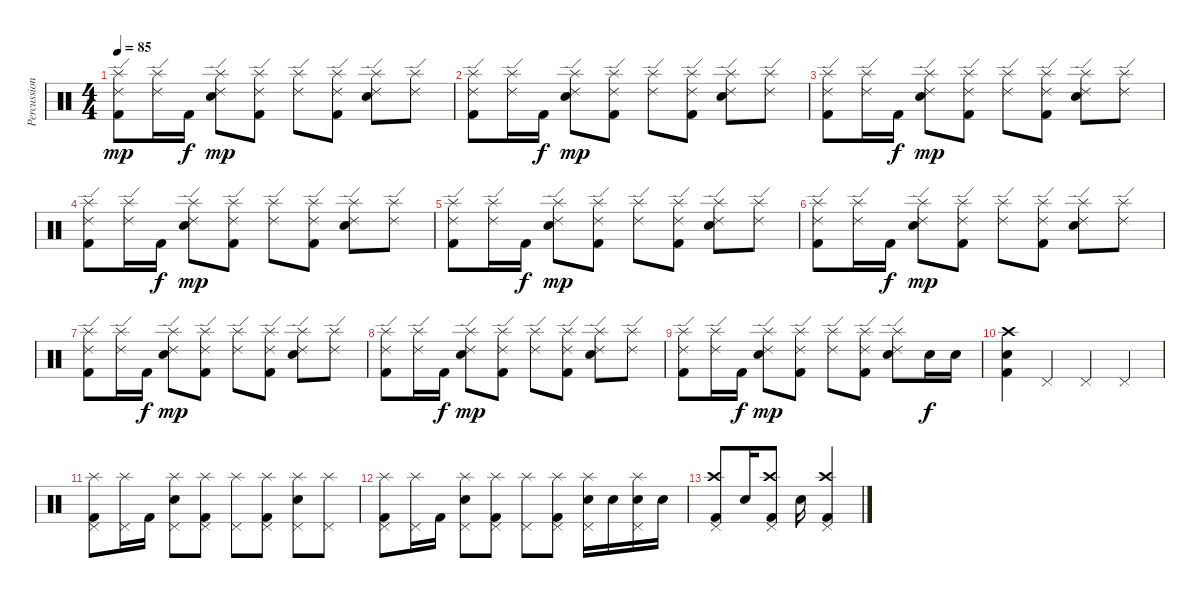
\track ("Percussion" "Percussion") {instrument percussion}
\staff {score}
\articulation defaults
\ts (4 4)
\tempo 85
\clef neutral
\ks c
("Splash (hit)" "Ride (edge) 2" "Kick (hit) 2").8{dy mp} ("Splash (hit)" "Ride (edge) 2").16 "Kick (hit) 2".16{dy f} ("Splash (hit)" "Ride (edge) 2" "Electric Snare (hit)").8{dy mp} ("Splash (hit)" "Ride (edge) 2" "Kick (hit) 2").8 ("Splash (hit)" "Ride (edge) 2").8 ("Splash (hit)" "Ride (edge) 2" "Kick (hit) 2").8 ("Splash (hit)" "Ride (edge) 2" "Electric Snare (hit)").8 ("Splash (hit)" "Ride (edge) 2").8 |
("Splash (hit)" "Ride (edge) 2" "Kick (hit) 2").8 ("Splash (hit)" "Ride (edge) 2").16 "Kick (hit) 2".16{dy f} ("Splash (hit)" "Ride (edge) 2" "Electric Snare (hit)").8{dy mp} ("Splash (hit)" "Ride (edge) 2" "Kick (hit) 2").8 ("Splash (hit)" "Ride (edge) 2").8 ("Splash (hit)" "Ride (edge) 2" "Kick (hit) 2").8 ("Splash (hit)" "Ride (edge) 2" "Electric Snare (hit)").8 ("Splash (hit)" "Ride (edge) 2").8 |
("Splash (hit)" "Ride (edge) 2" "Kick (hit) 2").8 ("Splash (hit)" "Ride (edge) 2").16 "Kick (hit) 2".16{dy f} ("Splash (hit)" "Ride (edge) 2" "Electric Snare (hit)").8{dy mp} ("Splash (hit)" "Ride (edge) 2" "Kick (hit) 2").8 ("Splash (hit)" "Ride (edge) 2").8 ("Splash (hit)" "Ride (edge) 2" "Kick (hit) 2").8 ("Splash (hit)" "Ride (edge) 2" "Electric Snare (hit)").8 ("Splash (hit)" "Ride (edge) 2").8 |
("Splash (hit)" "Ride (edge) 2" "Kick (hit) 2").8 ("Splash (hit)" "Ride (edge) 2").16 "Kick (hit) 2".16{dy f} ("Splash (hit)" "Ride (edge) 2" "Electric Snare (hit)").8{dy mp} ("Splash (hit)" "Ride (edge) 2" "Kick (hit) 2").8 ("Splash (hit)" "Ride (edge) 2").8 ("Splash (hit)" "Ride (edge) 2" "Kick (hit) 2").8 ("Splash (hit)" "Ride (edge) 2" "Electric Snare (hit)").8 ("Splash (hit)" "Ride (edge) 2").8 |
("Splash (hit)" "Ride (edge) 2" "Kick (hit) 2").8 ("Splash (hit)" "Ride (edge) 2").16 "Kick (hit) 2".16{dy f} ("Splash (hit)" "Ride (edge) 2" "Electric Snare (hit)").8{dy mp} ("Splash (hit)" "Ride (edge) 2" "Kick (hit) 2").8 ("Splash (hit)" "Ride (edge) 2").8 ("Splash (hit)" "Ride (edge) 2" "Kick (hit) 2").8 ("Splash (hit)" "Ride (edge) 2" "Electric Snare (hit)").8 ("Splash (hit)" "Ride (edge) 2").8 |
("Splash (hit)" "Ride (edge) 2" "Kick (hit) 2").8 ("Splash (hit)" "Ride (edge) 2").16 "Kick (hit) 2".16{dy f} ("Splash (hit)" "Ride (edge) 2" "Electric Snare (hit)").8{dy mp} ("Splash (hit)" "Ride (edge) 2" "Kick (hit) 2").8 ("Splash (hit)" "Ride (edge) 2").8 ("Splash (hit)" "Ride (edge) 2" "Kick (hit) 2").8 ("Splash (hit)" "Ride (edge) 2" "Electric Snare (hit)").8 ("Splash (hit)" "Ride (edge) 2").8 |
("Splash (hit)" "Ride (edge) 2" "Kick (hit) 2").8 ("Splash (hit)" "Ride (edge) 2").16 "Kick (hit) 2".16{dy f} ("Splash (hit)" "Ride (edge) 2" "Electric Snare (hit)").8{dy mp} ("Splash (hit)" "Ride (edge) 2" "Kick (hit) 2").8 ("Splash (hit)" "Ride (edge) 2").8 ("Splash (hit)" "Ride (edge) 2" "Kick (hit) 2").8 ("Splash (hit)" "Ride (edge) 2" "Electric Snare (hit)").8 ("Splash (hit)" "Ride (edge) 2").8 |
("Splash (hit)" "Ride (edge) 2" "Kick (hit) 2").8 ("Splash (hit)" "Ride (edge) 2").16 "Kick (hit) 2".16{dy f} ("Splash (hit)" "Ride (edge) 2" "Electric Snare (hit)").8{dy mp} ("Splash (hit)" "Ride (edge) 2" "Kick (hit) 2").8 ("Splash (hit)" "Ride (edge) 2").8 ("Splash (hit)" "Ride (edge) 2" "Kick (hit) 2").8 ("Splash (hit)" "Ride (edge) 2" "Electric Snare (hit)").8 ("Splash (hit)" "Ride (edge) 2").8 |
("Splash (hit)" "Ride (edge) 2" "Kick (hit) 2").8 ("Splash (hit)" "Ride (edge) 2").16 "Kick (hit) 2".16{dy f} ("Splash (hit)" "Ride (edge) 2" "Electric Snare (hit)").8{dy mp} ("Splash (hit)" "Ride (edge) 2" "Kick (hit) 2").8 ("Splash (hit)" "Ride (edge) 2").8 ("Splash (hit)" "Ride (edge) 2" "Kick (hit) 2").8 ("Splash (hit)" "Ride (edge) 2" "Electric Snare (hit)").8 "Electric Snare (hit)".16{dy f} "Electric Snare (hit)".16 |
("Crash high (hit)" "Electric Snare (hit)" "Kick (hit) 2").4 "Pedal Hi-Hat (hit)".4 "Pedal Hi-Hat (hit)".4 "Pedal Hi-Hat (hit)".4 |
("Pedal Hi-Hat (hit)" "Splash (hit)" "Kick (hit) 2").8 ("Pedal Hi-Hat (hit)" "Splash (hit)").16 "Kick (hit) 2".16 ("Pedal Hi-Hat (hit)" "Splash (hit)" "Electric Snare (hit)").8 ("Pedal Hi-Hat (hit)" "Splash (hit)" "Kick (hit) 2").8 ("Pedal Hi-Hat (hit)" "Splash (hit)").8 ("Pedal Hi-Hat (hit)" "Splash (hit)" "Kick (hit) 2").8 ("Pedal Hi-Hat (hit)" "Splash (hit)" "Electric Snare (hit)").8 ("Pedal Hi-Hat (hit)" "Splash (hit)").8 |
("Pedal Hi-Hat (hit)" "Splash (hit)" "Kick (hit) 2").8 ("Pedal Hi-Hat (hit)" "Splash (hit)").16 "Kick (hit) 2".16 ("Pedal Hi-Hat (hit)" "Splash (hit)" "Electric Snare (hit)").8 ("Pedal Hi-Hat (hit)" "Splash (hit)" "Kick (hit) 2").8 ("Pedal Hi-Hat (hit)" "Splash (hit)").8 ("Pedal Hi-Hat (hit)" "Splash (hit)" "Kick (hit) 2").8 ("Pedal Hi-Hat (hit)" "Splash (hit)" "Electric Snare (hit)").16 "Electric Snare (hit)".16 ("Pedal Hi-Hat (hit)" "Splash (hit)" "Electric Snare (hit)").16 "Electric Snare (hit)".16 |
("Pedal Hi-Hat (hit)" "Crash high (hit)" "Kick (hit) 2").8 "Electric Snare (hit)".16 ("Pedal Hi-Hat (hit)" "Crash high (hit)" "Kick (hit) 2").8 "Electric Snare (hit)".16 ("Pedal Hi-Hat (hit)" "Crash high (hit)" "Kick (hit) 2").4
